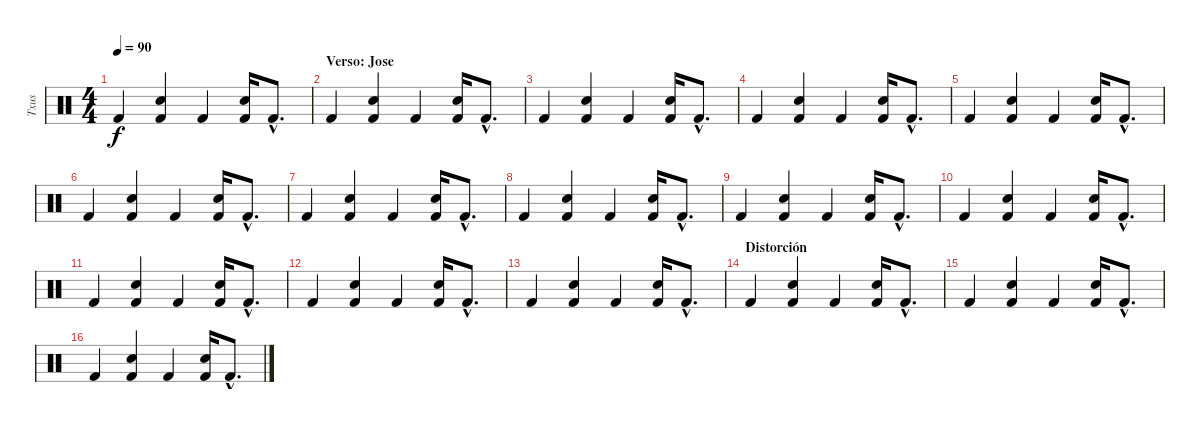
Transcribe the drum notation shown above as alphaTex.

\track ("Txus" "Txus") {instrument percussion}
\staff {score}
\articulation defaults
\ts (4 4)
\tempo 90
\clef neutral
\ks c "Kick (hit) 2".4{dy f}
("Kick (hit) 2" "Electric Snare (hit)").4 "Kick (hit) 2".4 ("Kick (hit) 2" "Electric Snare (hit)").16 "Kick (hit) 2"{hac}.8{d} |
\section ("" "Verso: Jose")
"Kick (hit) 2".4 ("Kick (hit) 2" "Electric Snare (hit)").4 "Kick (hit) 2".4 ("Kick (hit) 2" "Electric Snare (hit)").16 "Kick (hit) 2"{hac}.8{d} |
"Kick (hit) 2".4 ("Kick (hit) 2" "Electric Snare (hit)").4 "Kick (hit) 2".4 ("Kick (hit) 2" "Electric Snare (hit)").16 "Kick (hit) 2"{hac}.8{d} |
"Kick (hit) 2".4 ("Kick (hit) 2" "Electric Snare (hit)").4 "Kick (hit) 2".4 ("Kick (hit) 2" "Electric Snare (hit)").16 "Kick (hit) 2"{hac}.8{d} |
"Kick (hit) 2".4 ("Kick (hit) 2" "Electric Snare (hit)").4 "Kick (hit) 2".4 ("Kick (hit) 2" "Electric Snare (hit)").16 "Kick (hit) 2"{hac}.8{d} |
"Kick (hit) 2".4 ("Kick (hit) 2" "Electric Snare (hit)").4 "Kick (hit) 2".4 ("Kick (hit) 2" "Electric Snare (hit)").16 "Kick (hit) 2"{hac}.8{d} |
"Kick (hit) 2".4 ("Kick (hit) 2" "Electric Snare (hit)").4 "Kick (hit) 2".4 ("Kick (hit) 2" "Electric Snare (hit)").16 "Kick (hit) 2"{hac}.8{d} |
"Kick (hit) 2".4 ("Kick (hit) 2" "Electric Snare (hit)").4 "Kick (hit) 2".4 ("Kick (hit) 2" "Electric Snare (hit)").16 "Kick (hit) 2"{hac}.8{d} |
"Kick (hit) 2".4 ("Kick (hit) 2" "Electric Snare (hit)").4 "Kick (hit) 2".4 ("Kick (hit) 2" "Electric Snare (hit)").16 "Kick (hit) 2"{hac}.8{d} |
"Kick (hit) 2".4 ("Kick (hit) 2" "Electric Snare (hit)").4 "Kick (hit) 2".4 ("Kick (hit) 2" "Electric Snare (hit)").16 "Kick (hit) 2"{hac}.8{d} |
"Kick (hit) 2".4 ("Kick (hit) 2" "Electric Snare (hit)").4 "Kick (hit) 2".4 ("Kick (hit) 2" "Electric Snare (hit)").16 "Kick (hit) 2"{hac}.8{d} |
"Kick (hit) 2".4 ("Kick (hit) 2" "Electric Snare (hit)").4 "Kick (hit) 2".4 ("Kick (hit) 2" "Electric Snare (hit)").16 "Kick (hit) 2"{hac}.8{d} |
"Kick (hit) 2".4 ("Kick (hit) 2" "Electric Snare (hit)").4 "Kick (hit) 2".4 ("Kick (hit) 2" "Electric Snare (hit)").16 "Kick (hit) 2"{hac}.8{d} |
\section ("" "Distorción")
"Kick (hit) 2".4 ("Kick (hit) 2" "Electric Snare (hit)").4 "Kick (hit) 2".4 ("Kick (hit) 2" "Electric Snare (hit)").16 "Kick (hit) 2"{hac}.8{d} |
"Kick (hit) 2".4 ("Kick (hit) 2" "Electric Snare (hit)").4 "Kick (hit) 2".4 ("Kick (hit) 2" "Electric Snare (hit)").16 "Kick (hit) 2"{hac}.8{d} |
"Kick (hit) 2".4 ("Kick (hit) 2" "Electric Snare (hit)").4 "Kick (hit) 2".4 ("Kick (hit) 2" "Electric Snare (hit)").16 "Kick (hit) 2"{hac}.8{d}
